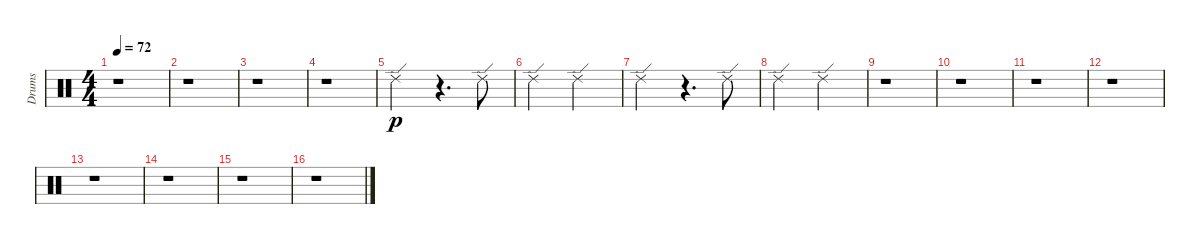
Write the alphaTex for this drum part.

\track ("Drums" "Drums") {instrument percussion}
\staff {score}
\articulation defaults
\ts (4 4)
\tempo 72
\clef neutral
\ks c
r.1{dy p} |
r.1 |
r.1 |
r.1 |
"Ride (edge) 2".2 r.4{d} "Ride (edge) 2".8 |
"Ride (edge) 2".2 "Ride (edge) 2".2 |
"Ride (edge) 2".2 r.4{d} "Ride (edge) 2".8 |
"Ride (edge) 2".2 "Ride (edge) 2".2 |
r.1 |
r.1 |
r.1 |
r.1 |
r.1 |
r.1 |
r.1 |
r.1
